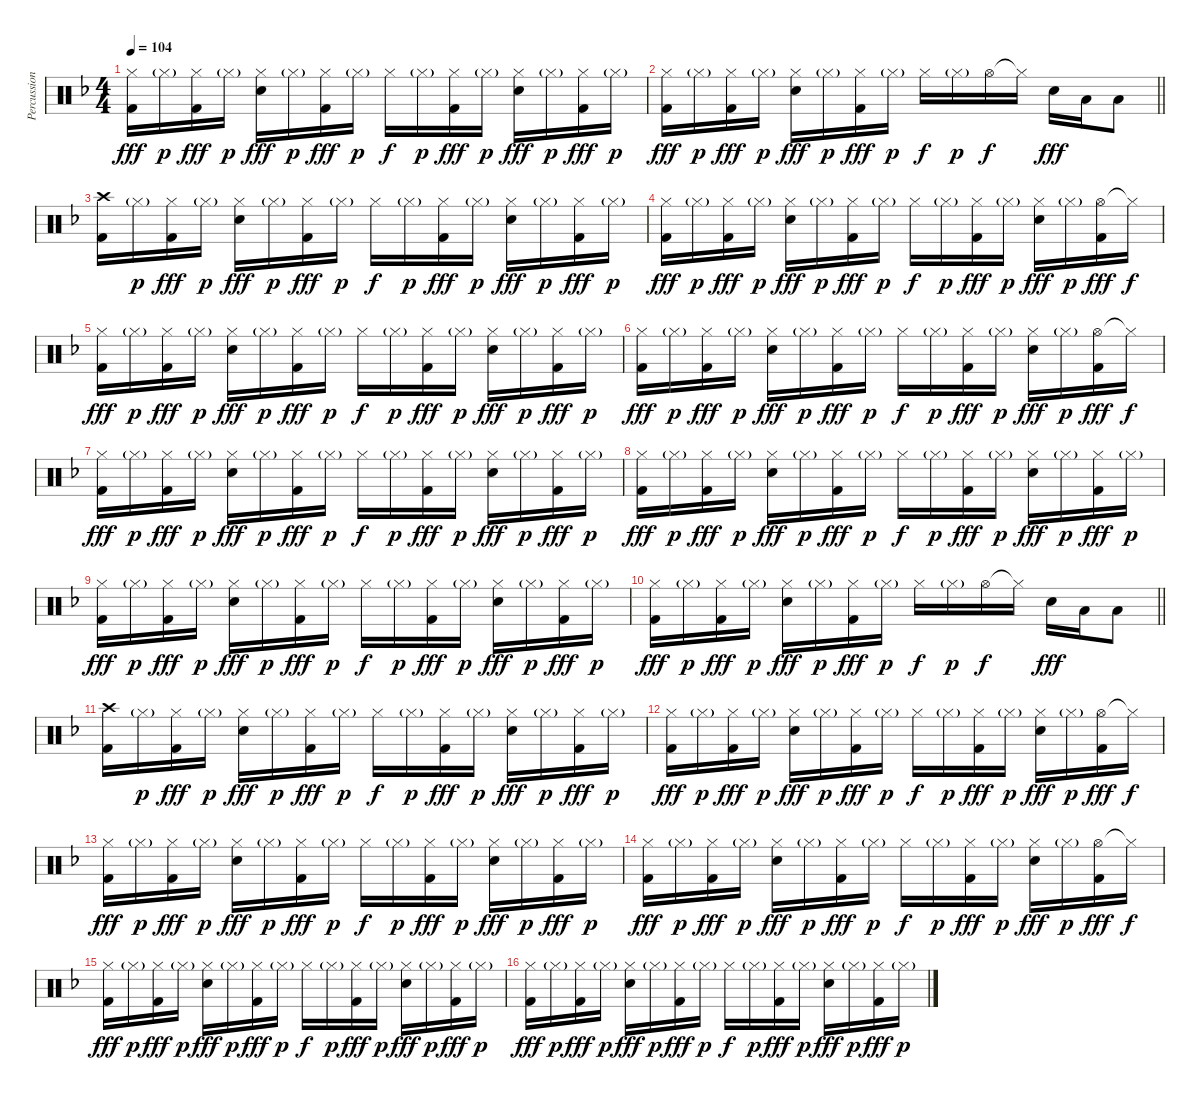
\track ("Percussion" "Percussion") {instrument percussion}
\staff {score}
\articulation defaults
\ts (4 4)
\tempo 104
\clef neutral
\ks dminor
("Hi-Hat (closed)" "Kick (hit) 2").16{dy fff} "Hi-Hat (closed)"{g}.16{dy p} ("Hi-Hat (closed)" "Kick (hit) 2").16{dy fff} "Hi-Hat (closed)"{g}.16{dy p} ("Hi-Hat (closed)" "Snare (hit) 2").16{dy fff} "Hi-Hat (closed)"{g}.16{dy p} ("Hi-Hat (closed)" "Kick (hit) 2").16{dy fff} "Hi-Hat (closed)"{g}.16{dy p} "Hi-Hat (closed)".16{dy f} "Hi-Hat (closed)"{g}.16{dy p} ("Hi-Hat (closed)" "Kick (hit) 2").16{dy fff} "Hi-Hat (closed)"{g}.16{dy p} ("Hi-Hat (closed)" "Snare (hit) 2").16{dy fff} "Hi-Hat (closed)"{g}.16{dy p} ("Hi-Hat (closed)" "Kick (hit) 2").16{dy fff} "Hi-Hat (closed)"{g}.16{dy p} |
\barLineRight lightlight
("Hi-Hat (closed)" "Kick (hit) 2").16{dy fff} "Hi-Hat (closed)"{g}.16{dy p} ("Hi-Hat (closed)" "Kick (hit) 2").16{dy fff} "Hi-Hat (closed)"{g}.16{dy p} ("Hi-Hat (closed)" "Snare (hit) 2").16{dy fff} "Hi-Hat (closed)"{g}.16{dy p} ("Hi-Hat (closed)" "Kick (hit) 2").16{dy fff} "Hi-Hat (closed)"{g}.16{dy p} "Hi-Hat (closed)".16{dy f} "Hi-Hat (closed)"{g}.16{dy p} "Hi-Hat (open)".16{dy f} "Hi-Hat (closed)"{t}.16 "Snare (hit) 2".16{dy fff} "Low Tom (hit)".16 "Low Floor Tom (hit)".8 |
("Crash high (hit)" "Kick (hit) 2").16 "Hi-Hat (closed)"{g}.16{dy p} ("Hi-Hat (closed)" "Kick (hit) 2").16{dy fff} "Hi-Hat (closed)"{g}.16{dy p} ("Hi-Hat (closed)" "Snare (hit) 2").16{dy fff} "Hi-Hat (closed)"{g}.16{dy p} ("Hi-Hat (closed)" "Kick (hit) 2").16{dy fff} "Hi-Hat (closed)"{g}.16{dy p} "Hi-Hat (closed)".16{dy f} "Hi-Hat (closed)"{g}.16{dy p} ("Hi-Hat (closed)" "Kick (hit) 2").16{dy fff} "Hi-Hat (closed)"{g}.16{dy p} ("Hi-Hat (closed)" "Snare (hit) 2").16{dy fff} "Hi-Hat (closed)"{g}.16{dy p} ("Hi-Hat (closed)" "Kick (hit) 2").16{dy fff} "Hi-Hat (closed)"{g}.16{dy p} |
("Hi-Hat (closed)" "Kick (hit) 2").16{dy fff} "Hi-Hat (closed)"{g}.16{dy p} ("Hi-Hat (closed)" "Kick (hit) 2").16{dy fff} "Hi-Hat (closed)"{g}.16{dy p} ("Hi-Hat (closed)" "Snare (hit) 2").16{dy fff} "Hi-Hat (closed)"{g}.16{dy p} ("Hi-Hat (closed)" "Kick (hit) 2").16{dy fff} "Hi-Hat (closed)"{g}.16{dy p} "Hi-Hat (closed)".16{dy f} "Hi-Hat (closed)"{g}.16{dy p} ("Hi-Hat (closed)" "Kick (hit) 2").16{dy fff} "Hi-Hat (closed)"{g}.16{dy p} ("Hi-Hat (closed)" "Snare (hit) 2").16{dy fff} "Hi-Hat (closed)"{g}.16{dy p} ("Hi-Hat (open)" "Kick (hit) 2").16{dy fff} "Hi-Hat (closed)"{t}.16{dy f} |
("Hi-Hat (closed)" "Kick (hit) 2").16{dy fff} "Hi-Hat (closed)"{g}.16{dy p} ("Hi-Hat (closed)" "Kick (hit) 2").16{dy fff} "Hi-Hat (closed)"{g}.16{dy p} ("Hi-Hat (closed)" "Snare (hit) 2").16{dy fff} "Hi-Hat (closed)"{g}.16{dy p} ("Hi-Hat (closed)" "Kick (hit) 2").16{dy fff} "Hi-Hat (closed)"{g}.16{dy p} "Hi-Hat (closed)".16{dy f} "Hi-Hat (closed)"{g}.16{dy p} ("Hi-Hat (closed)" "Kick (hit) 2").16{dy fff} "Hi-Hat (closed)"{g}.16{dy p} ("Hi-Hat (closed)" "Snare (hit) 2").16{dy fff} "Hi-Hat (closed)"{g}.16{dy p} ("Hi-Hat (closed)" "Kick (hit) 2").16{dy fff} "Hi-Hat (closed)"{g}.16{dy p} |
("Hi-Hat (closed)" "Kick (hit) 2").16{dy fff} "Hi-Hat (closed)"{g}.16{dy p} ("Hi-Hat (closed)" "Kick (hit) 2").16{dy fff} "Hi-Hat (closed)"{g}.16{dy p} ("Hi-Hat (closed)" "Snare (hit) 2").16{dy fff} "Hi-Hat (closed)"{g}.16{dy p} ("Hi-Hat (closed)" "Kick (hit) 2").16{dy fff} "Hi-Hat (closed)"{g}.16{dy p} "Hi-Hat (closed)".16{dy f} "Hi-Hat (closed)"{g}.16{dy p} ("Hi-Hat (closed)" "Kick (hit) 2").16{dy fff} "Hi-Hat (closed)"{g}.16{dy p} ("Hi-Hat (closed)" "Snare (hit) 2").16{dy fff} "Hi-Hat (closed)"{g}.16{dy p} ("Hi-Hat (open)" "Kick (hit) 2").16{dy fff} "Hi-Hat (closed)"{t}.16{dy f} |
("Hi-Hat (closed)" "Kick (hit) 2").16{dy fff} "Hi-Hat (closed)"{g}.16{dy p} ("Hi-Hat (closed)" "Kick (hit) 2").16{dy fff} "Hi-Hat (closed)"{g}.16{dy p} ("Hi-Hat (closed)" "Snare (hit) 2").16{dy fff} "Hi-Hat (closed)"{g}.16{dy p} ("Hi-Hat (closed)" "Kick (hit) 2").16{dy fff} "Hi-Hat (closed)"{g}.16{dy p} "Hi-Hat (closed)".16{dy f} "Hi-Hat (closed)"{g}.16{dy p} ("Hi-Hat (closed)" "Kick (hit) 2").16{dy fff} "Hi-Hat (closed)"{g}.16{dy p} ("Hi-Hat (closed)" "Snare (hit) 2").16{dy fff} "Hi-Hat (closed)"{g}.16{dy p} ("Hi-Hat (closed)" "Kick (hit) 2").16{dy fff} "Hi-Hat (closed)"{g}.16{dy p} |
("Hi-Hat (closed)" "Kick (hit) 2").16{dy fff} "Hi-Hat (closed)"{g}.16{dy p} ("Hi-Hat (closed)" "Kick (hit) 2").16{dy fff} "Hi-Hat (closed)"{g}.16{dy p} ("Hi-Hat (closed)" "Snare (hit) 2").16{dy fff} "Hi-Hat (closed)"{g}.16{dy p} ("Hi-Hat (closed)" "Kick (hit) 2").16{dy fff} "Hi-Hat (closed)"{g}.16{dy p} "Hi-Hat (closed)".16{dy f} "Hi-Hat (closed)"{g}.16{dy p} ("Hi-Hat (closed)" "Kick (hit) 2").16{dy fff} "Hi-Hat (closed)"{g}.16{dy p} ("Hi-Hat (closed)" "Snare (hit) 2").16{dy fff} "Hi-Hat (closed)"{g}.16{dy p} ("Hi-Hat (closed)" "Kick (hit) 2").16{dy fff} "Hi-Hat (closed)"{g}.16{dy p} |
("Hi-Hat (closed)" "Kick (hit) 2").16{dy fff} "Hi-Hat (closed)"{g}.16{dy p} ("Hi-Hat (closed)" "Kick (hit) 2").16{dy fff} "Hi-Hat (closed)"{g}.16{dy p} ("Hi-Hat (closed)" "Snare (hit) 2").16{dy fff} "Hi-Hat (closed)"{g}.16{dy p} ("Hi-Hat (closed)" "Kick (hit) 2").16{dy fff} "Hi-Hat (closed)"{g}.16{dy p} "Hi-Hat (closed)".16{dy f} "Hi-Hat (closed)"{g}.16{dy p} ("Hi-Hat (closed)" "Kick (hit) 2").16{dy fff} "Hi-Hat (closed)"{g}.16{dy p} ("Hi-Hat (closed)" "Snare (hit) 2").16{dy fff} "Hi-Hat (closed)"{g}.16{dy p} ("Hi-Hat (closed)" "Kick (hit) 2").16{dy fff} "Hi-Hat (closed)"{g}.16{dy p} |
\barLineRight lightlight
("Hi-Hat (closed)" "Kick (hit) 2").16{dy fff} "Hi-Hat (closed)"{g}.16{dy p} ("Hi-Hat (closed)" "Kick (hit) 2").16{dy fff} "Hi-Hat (closed)"{g}.16{dy p} ("Hi-Hat (closed)" "Snare (hit) 2").16{dy fff} "Hi-Hat (closed)"{g}.16{dy p} ("Hi-Hat (closed)" "Kick (hit) 2").16{dy fff} "Hi-Hat (closed)"{g}.16{dy p} "Hi-Hat (closed)".16{dy f} "Hi-Hat (closed)"{g}.16{dy p} "Hi-Hat (open)".16{dy f} "Hi-Hat (closed)"{t}.16 "Snare (hit) 2".16{dy fff} "Low Tom (hit)".16 "Low Floor Tom (hit)".8 |
("Crash high (hit)" "Kick (hit) 2").16 "Hi-Hat (closed)"{g}.16{dy p} ("Hi-Hat (closed)" "Kick (hit) 2").16{dy fff} "Hi-Hat (closed)"{g}.16{dy p} ("Hi-Hat (closed)" "Snare (hit) 2").16{dy fff} "Hi-Hat (closed)"{g}.16{dy p} ("Hi-Hat (closed)" "Kick (hit) 2").16{dy fff} "Hi-Hat (closed)"{g}.16{dy p} "Hi-Hat (closed)".16{dy f} "Hi-Hat (closed)"{g}.16{dy p} ("Hi-Hat (closed)" "Kick (hit) 2").16{dy fff} "Hi-Hat (closed)"{g}.16{dy p} ("Hi-Hat (closed)" "Snare (hit) 2").16{dy fff} "Hi-Hat (closed)"{g}.16{dy p} ("Hi-Hat (closed)" "Kick (hit) 2").16{dy fff} "Hi-Hat (closed)"{g}.16{dy p} |
("Hi-Hat (closed)" "Kick (hit) 2").16{dy fff} "Hi-Hat (closed)"{g}.16{dy p} ("Hi-Hat (closed)" "Kick (hit) 2").16{dy fff} "Hi-Hat (closed)"{g}.16{dy p} ("Hi-Hat (closed)" "Snare (hit) 2").16{dy fff} "Hi-Hat (closed)"{g}.16{dy p} ("Hi-Hat (closed)" "Kick (hit) 2").16{dy fff} "Hi-Hat (closed)"{g}.16{dy p} "Hi-Hat (closed)".16{dy f} "Hi-Hat (closed)"{g}.16{dy p} ("Hi-Hat (closed)" "Kick (hit) 2").16{dy fff} "Hi-Hat (closed)"{g}.16{dy p} ("Hi-Hat (closed)" "Snare (hit) 2").16{dy fff} "Hi-Hat (closed)"{g}.16{dy p} ("Hi-Hat (open)" "Kick (hit) 2").16{dy fff} "Hi-Hat (closed)"{t}.16{dy f} |
("Hi-Hat (closed)" "Kick (hit) 2").16{dy fff} "Hi-Hat (closed)"{g}.16{dy p} ("Hi-Hat (closed)" "Kick (hit) 2").16{dy fff} "Hi-Hat (closed)"{g}.16{dy p} ("Hi-Hat (closed)" "Snare (hit) 2").16{dy fff} "Hi-Hat (closed)"{g}.16{dy p} ("Hi-Hat (closed)" "Kick (hit) 2").16{dy fff} "Hi-Hat (closed)"{g}.16{dy p} "Hi-Hat (closed)".16{dy f} "Hi-Hat (closed)"{g}.16{dy p} ("Hi-Hat (closed)" "Kick (hit) 2").16{dy fff} "Hi-Hat (closed)"{g}.16{dy p} ("Hi-Hat (closed)" "Snare (hit) 2").16{dy fff} "Hi-Hat (closed)"{g}.16{dy p} ("Hi-Hat (closed)" "Kick (hit) 2").16{dy fff} "Hi-Hat (closed)"{g}.16{dy p} |
("Hi-Hat (closed)" "Kick (hit) 2").16{dy fff} "Hi-Hat (closed)"{g}.16{dy p} ("Hi-Hat (closed)" "Kick (hit) 2").16{dy fff} "Hi-Hat (closed)"{g}.16{dy p} ("Hi-Hat (closed)" "Snare (hit) 2").16{dy fff} "Hi-Hat (closed)"{g}.16{dy p} ("Hi-Hat (closed)" "Kick (hit) 2").16{dy fff} "Hi-Hat (closed)"{g}.16{dy p} "Hi-Hat (closed)".16{dy f} "Hi-Hat (closed)"{g}.16{dy p} ("Hi-Hat (closed)" "Kick (hit) 2").16{dy fff} "Hi-Hat (closed)"{g}.16{dy p} ("Hi-Hat (closed)" "Snare (hit) 2").16{dy fff} "Hi-Hat (closed)"{g}.16{dy p} ("Hi-Hat (open)" "Kick (hit) 2").16{dy fff} "Hi-Hat (closed)"{t}.16{dy f} |
("Hi-Hat (closed)" "Kick (hit) 2").16{dy fff} "Hi-Hat (closed)"{g}.16{dy p} ("Hi-Hat (closed)" "Kick (hit) 2").16{dy fff} "Hi-Hat (closed)"{g}.16{dy p} ("Hi-Hat (closed)" "Snare (hit) 2").16{dy fff} "Hi-Hat (closed)"{g}.16{dy p} ("Hi-Hat (closed)" "Kick (hit) 2").16{dy fff} "Hi-Hat (closed)"{g}.16{dy p} "Hi-Hat (closed)".16{dy f} "Hi-Hat (closed)"{g}.16{dy p} ("Hi-Hat (closed)" "Kick (hit) 2").16{dy fff} "Hi-Hat (closed)"{g}.16{dy p} ("Hi-Hat (closed)" "Snare (hit) 2").16{dy fff} "Hi-Hat (closed)"{g}.16{dy p} ("Hi-Hat (closed)" "Kick (hit) 2").16{dy fff} "Hi-Hat (closed)"{g}.16{dy p} |
("Hi-Hat (closed)" "Kick (hit) 2").16{dy fff} "Hi-Hat (closed)"{g}.16{dy p} ("Hi-Hat (closed)" "Kick (hit) 2").16{dy fff} "Hi-Hat (closed)"{g}.16{dy p} ("Hi-Hat (closed)" "Snare (hit) 2").16{dy fff} "Hi-Hat (closed)"{g}.16{dy p} ("Hi-Hat (closed)" "Kick (hit) 2").16{dy fff} "Hi-Hat (closed)"{g}.16{dy p} "Hi-Hat (closed)".16{dy f} "Hi-Hat (closed)"{g}.16{dy p} ("Hi-Hat (closed)" "Kick (hit) 2").16{dy fff} "Hi-Hat (closed)"{g}.16{dy p} ("Hi-Hat (closed)" "Snare (hit) 2").16{dy fff} "Hi-Hat (closed)"{g}.16{dy p} ("Hi-Hat (closed)" "Kick (hit) 2").16{dy fff} "Hi-Hat (closed)"{g}.16{dy p}
